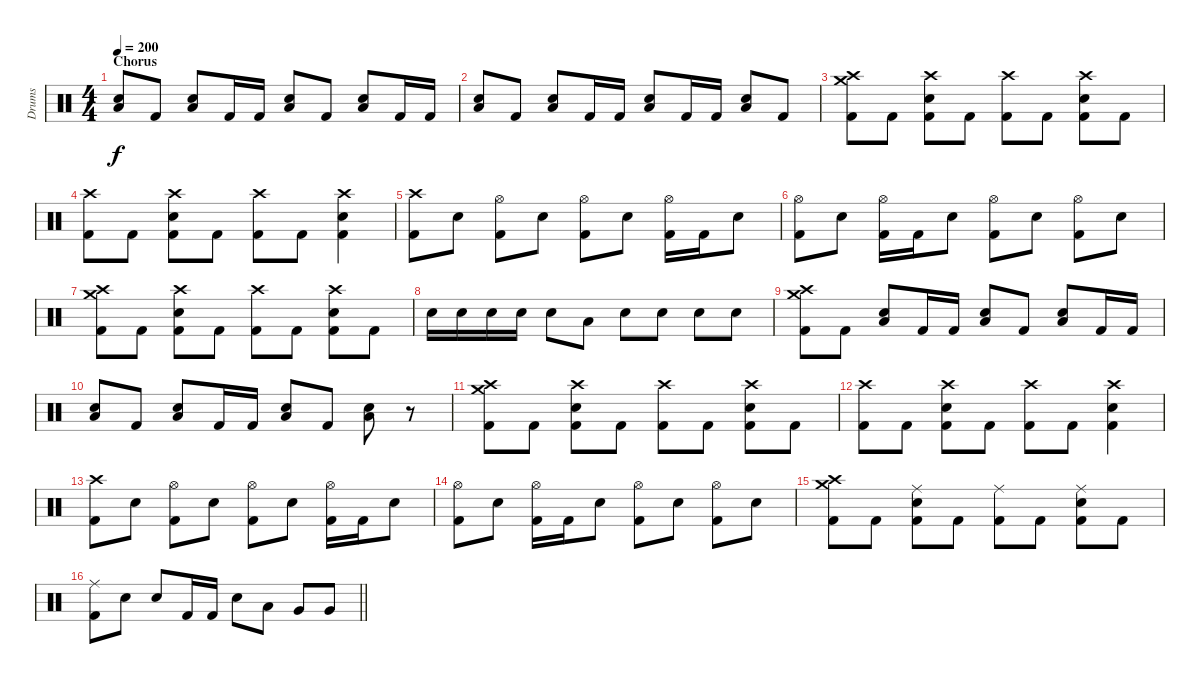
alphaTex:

\track ("Drums" "Drums") {instrument percussion}
\staff {score}
\articulation defaults
\ts (4 4)
\section ("" "Chorus")
\tempo 200
\clef neutral
\ks c
("Electric Snare (hit)" "Low Floor Tom (hit)").8{dy f} "Kick (hit) 2".8 ("Electric Snare (hit)" "Low Floor Tom (hit)").8 "Kick (hit) 2".16 "Kick (hit) 2".16 ("Electric Snare (hit)" "Low Floor Tom (hit)").8 "Kick (hit) 2".8 ("Electric Snare (hit)" "Low Floor Tom (hit)").8 "Kick (hit) 2".16 "Kick (hit) 2".16 |
("Electric Snare (hit)" "Low Floor Tom (hit)").8 "Kick (hit) 2".8 ("Electric Snare (hit)" "Low Floor Tom (hit)").8 "Kick (hit) 2".16 "Kick (hit) 2".16 ("Electric Snare (hit)" "Low Floor Tom (hit)").8 "Kick (hit) 2".16 "Kick (hit) 2".16 ("Electric Snare (hit)" "Low Floor Tom (hit)").8 "Kick (hit) 2".8 |
("Crash medium (hit)" "Crash high (hit)" "Kick (hit) 2").8 "Kick (hit) 2".8 ("Crash high (hit)" "Electric Snare (hit)" "Kick (hit) 2").8 "Kick (hit) 2".8 ("Crash high (hit)" "Kick (hit) 2").8 "Kick (hit) 2".8 ("Crash high (hit)" "Electric Snare (hit)" "Kick (hit) 2").8 "Kick (hit) 2".8 |
("Crash high (hit)" "Kick (hit) 2").8 "Kick (hit) 2".8 ("Crash high (hit)" "Electric Snare (hit)" "Kick (hit) 2").8 "Kick (hit) 2".8 ("Crash high (hit)" "Kick (hit) 2").8 "Kick (hit) 2".8 ("Crash high (hit)" "Electric Snare (hit)" "Kick (hit) 2").4 |
("Crash high (hit)" "Kick (hit) 2").8 "Electric Snare (hit)".8 ("Hi-Hat (open)" "Kick (hit) 2").8 "Electric Snare (hit)".8 ("Hi-Hat (open)" "Kick (hit) 2").8 "Electric Snare (hit)".8 ("Hi-Hat (open)" "Kick (hit) 2").16 "Kick (hit) 2".16 "Electric Snare (hit)".8 |
("Hi-Hat (open)" "Kick (hit) 2").8 "Electric Snare (hit)".8 ("Hi-Hat (open)" "Kick (hit) 2").16 "Kick (hit) 2".16 "Electric Snare (hit)".8 ("Hi-Hat (open)" "Kick (hit) 2").8 "Electric Snare (hit)".8 ("Hi-Hat (open)" "Kick (hit) 2").8 "Electric Snare (hit)".8 |
("Crash medium (hit)" "Crash high (hit)" "Kick (hit) 2").8 "Kick (hit) 2".8 ("Crash high (hit)" "Electric Snare (hit)" "Kick (hit) 2").8 "Kick (hit) 2".8 ("Crash high (hit)" "Kick (hit) 2").8 "Kick (hit) 2".8 ("Crash high (hit)" "Electric Snare (hit)" "Kick (hit) 2").8 "Kick (hit) 2".8 |
"Electric Snare (hit)".16 "Electric Snare (hit)".16 "Electric Snare (hit)".16 "Electric Snare (hit)".16 "Electric Snare (hit)".8 "Low Tom (hit)".8 "Electric Snare (hit)".8 "Electric Snare (hit)".8 "Electric Snare (hit)".8 "Electric Snare (hit)".8 |
("Crash medium (hit)" "Crash high (hit)" "Kick (hit) 2").8 "Kick (hit) 2".8 ("Electric Snare (hit)" "Low Floor Tom (hit)").8 "Kick (hit) 2".16 "Kick (hit) 2".16 ("Electric Snare (hit)" "Low Floor Tom (hit)").8 "Kick (hit) 2".8 ("Electric Snare (hit)" "Low Floor Tom (hit)").8 "Kick (hit) 2".16 "Kick (hit) 2".16 |
("Electric Snare (hit)" "Low Floor Tom (hit)").8 "Kick (hit) 2".8 ("Electric Snare (hit)" "Low Floor Tom (hit)").8 "Kick (hit) 2".16 "Kick (hit) 2".16 ("Electric Snare (hit)" "Low Floor Tom (hit)").8 "Kick (hit) 2".8 ("Electric Snare (hit)" "Low Floor Tom (hit)").8 r.8 |
("Crash medium (hit)" "Crash high (hit)" "Kick (hit) 2").8 "Kick (hit) 2".8 ("Crash high (hit)" "Electric Snare (hit)" "Kick (hit) 2").8 "Kick (hit) 2".8 ("Crash high (hit)" "Kick (hit) 2").8 "Kick (hit) 2".8 ("Crash high (hit)" "Electric Snare (hit)" "Kick (hit) 2").8 "Kick (hit) 2".8 |
("Crash high (hit)" "Kick (hit) 2").8 "Kick (hit) 2".8 ("Crash high (hit)" "Electric Snare (hit)" "Kick (hit) 2").8 "Kick (hit) 2".8 ("Crash high (hit)" "Kick (hit) 2").8 "Kick (hit) 2".8 ("Crash high (hit)" "Electric Snare (hit)" "Kick (hit) 2").4 |
("Crash high (hit)" "Kick (hit) 2").8 "Electric Snare (hit)".8 ("Hi-Hat (open)" "Kick (hit) 2").8 "Electric Snare (hit)".8 ("Hi-Hat (open)" "Kick (hit) 2").8 "Electric Snare (hit)".8 ("Hi-Hat (open)" "Kick (hit) 2").16 "Kick (hit) 2".16 "Electric Snare (hit)".8 |
("Hi-Hat (open)" "Kick (hit) 2").8 "Electric Snare (hit)".8 ("Hi-Hat (open)" "Kick (hit) 2").16 "Kick (hit) 2".16 "Electric Snare (hit)".8 ("Hi-Hat (open)" "Kick (hit) 2").8 "Electric Snare (hit)".8 ("Hi-Hat (open)" "Kick (hit) 2").8 "Electric Snare (hit)".8 |
("Crash medium (hit)" "Crash high (hit)" "Kick (hit) 2").8 "Kick (hit) 2".8 ("Ride (middle)" "Electric Snare (hit)" "Kick (hit) 2").8 "Kick (hit) 2".8 ("Ride (middle)" "Kick (hit) 2").8 "Kick (hit) 2".8 ("Ride (middle)" "Electric Snare (hit)" "Kick (hit) 2").8 "Kick (hit) 2".8 |
\barLineRight lightlight
("Ride (middle)" "Kick (hit) 2").8 "Electric Snare (hit)".8 "Electric Snare (hit)".8 "Kick (hit) 2".16 "Kick (hit) 2".16 "Electric Snare (hit)".8 "Low Tom (hit)".8 "Very Low Tom (hit)".8 "Very Low Tom (hit)".8
